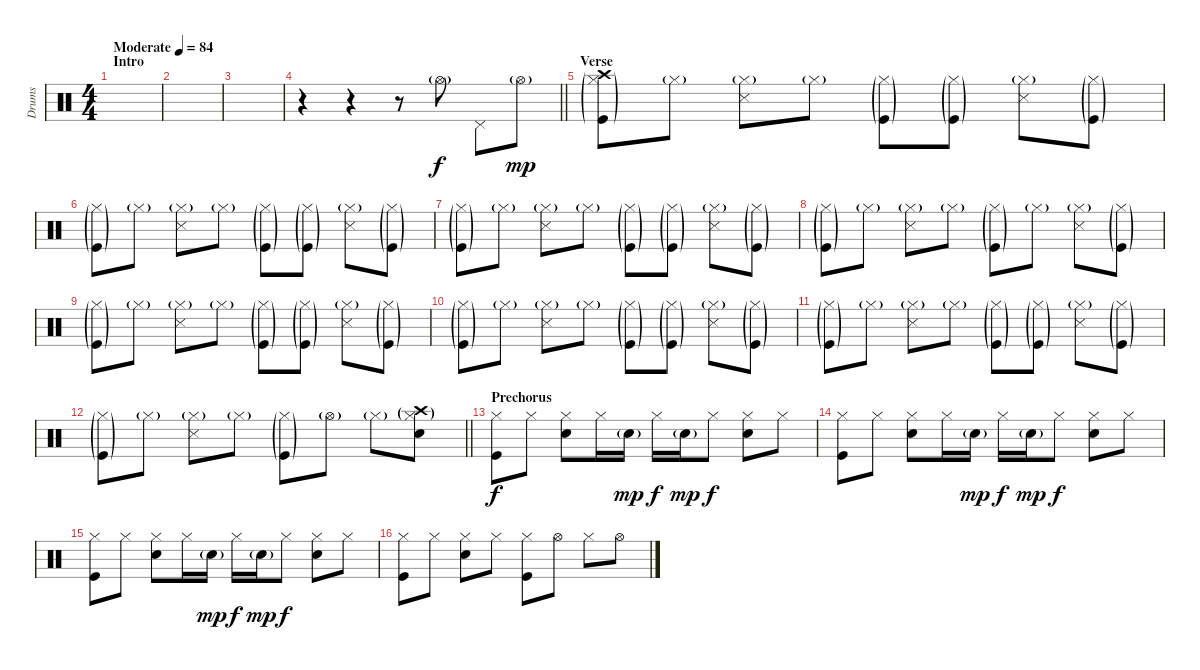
\track ("Drums" "Drums") {instrument percussion}
\staff {score}
\articulation defaults
\ts (4 4)
\section ("" "Intro")
\tempo (84 "Moderate")
\clef neutral
\ks c
|
|
|
\barLineRight lightlight
r.4 r.4 r.8 "Hi-Hat (open)"{g}.8 "Pedal Hi-Hat (hit)".8{dy f} "Hi-Hat (open)"{g}.8{dy mp} |
\section ("" "Verse")
("Hi-Hat (closed)"{g} "Crash high (hit)"{g} "Kick (hit)"{g}).8 "Hi-Hat (closed)"{g}.8 ("Hi-Hat (closed)"{g} "Snare (side stick) 3").8 "Hi-Hat (closed)"{g}.8 ("Hi-Hat (closed)"{g} "Kick (hit)"{g}).8 ("Hi-Hat (closed)"{g} "Kick (hit)"{g}).8 ("Hi-Hat (closed)"{g} "Snare (side stick) 3").8 ("Hi-Hat (closed)"{g} "Kick (hit)"{g}).8 |
("Hi-Hat (closed)"{g} "Kick (hit)"{g}).8 "Hi-Hat (closed)"{g}.8 ("Hi-Hat (closed)"{g} "Snare (side stick) 3").8 "Hi-Hat (closed)"{g}.8 ("Hi-Hat (closed)"{g} "Kick (hit)"{g}).8 ("Hi-Hat (closed)"{g} "Kick (hit)"{g}).8 ("Hi-Hat (closed)"{g} "Snare (side stick) 3").8 ("Hi-Hat (closed)"{g} "Kick (hit)"{g}).8 |
("Hi-Hat (closed)"{g} "Kick (hit)"{g}).8 "Hi-Hat (closed)"{g}.8 ("Hi-Hat (closed)"{g} "Snare (side stick) 3").8 "Hi-Hat (closed)"{g}.8 ("Hi-Hat (closed)"{g} "Kick (hit)"{g}).8 ("Hi-Hat (closed)"{g} "Kick (hit)"{g}).8 ("Hi-Hat (closed)"{g} "Snare (side stick) 3").8 ("Hi-Hat (closed)"{g} "Kick (hit)"{g}).8 |
("Hi-Hat (closed)"{g} "Kick (hit)"{g}).8 "Hi-Hat (closed)"{g}.8 ("Hi-Hat (closed)"{g} "Snare (side stick) 3").8 "Hi-Hat (closed)"{g}.8 ("Hi-Hat (closed)"{g} "Kick (hit)"{g}).8 "Hi-Hat (closed)"{g}.8 ("Hi-Hat (closed)"{g} "Snare (side stick) 3").8 ("Hi-Hat (closed)"{g} "Kick (hit)"{g}).8 |
("Hi-Hat (closed)"{g} "Kick (hit)"{g}).8 "Hi-Hat (closed)"{g}.8 ("Hi-Hat (closed)"{g} "Snare (side stick) 3").8 "Hi-Hat (closed)"{g}.8 ("Hi-Hat (closed)"{g} "Kick (hit)"{g}).8 ("Hi-Hat (closed)"{g} "Kick (hit)"{g}).8 ("Hi-Hat (closed)"{g} "Snare (side stick) 3").8 ("Hi-Hat (closed)"{g} "Kick (hit)"{g}).8 |
("Hi-Hat (closed)"{g} "Kick (hit)"{g}).8 "Hi-Hat (closed)"{g}.8 ("Hi-Hat (closed)"{g} "Snare (side stick) 3").8 "Hi-Hat (closed)"{g}.8 ("Hi-Hat (closed)"{g} "Kick (hit)"{g}).8 ("Hi-Hat (closed)"{g} "Kick (hit)"{g}).8 ("Hi-Hat (closed)"{g} "Snare (side stick) 3").8 ("Hi-Hat (closed)"{g} "Kick (hit)"{g}).8 |
("Hi-Hat (closed)"{g} "Kick (hit)"{g}).8 "Hi-Hat (closed)"{g}.8 ("Hi-Hat (closed)"{g} "Snare (side stick) 3").8 "Hi-Hat (closed)"{g}.8 ("Hi-Hat (closed)"{g} "Kick (hit)"{g}).8 ("Hi-Hat (closed)"{g} "Kick (hit)"{g}).8 ("Hi-Hat (closed)"{g} "Snare (side stick) 3").8 ("Hi-Hat (closed)"{g} "Kick (hit)"{g}).8 |
\barLineRight lightlight
("Hi-Hat (closed)"{g} "Kick (hit)"{g}).8 "Hi-Hat (closed)"{g}.8 ("Hi-Hat (closed)"{g} "Snare (side stick) 3").8 "Hi-Hat (closed)"{g}.8 ("Hi-Hat (closed)"{g} "Kick (hit)"{g}).8 "Hi-Hat (open)"{g}.8 "Hi-Hat (closed)"{g}.8 ("Hi-Hat (closed)"{g} "Crash high (hit)"{g} "Snare (hit) 2").8 |
\section ("" "Prechorus")
("Hi-Hat (closed)" "Kick (hit)").8{dy f} "Hi-Hat (closed)".8 ("Hi-Hat (closed)" "Snare (hit) 2").8 "Hi-Hat (closed)".16 "Snare (hit) 2"{g}.16{dy mp} "Hi-Hat (closed)".16{dy f} "Snare (hit) 2"{g}.16{dy mp} "Hi-Hat (closed)".8{dy f} ("Hi-Hat (closed)" "Snare (hit) 2").8 "Hi-Hat (closed)".8 |
("Hi-Hat (closed)" "Kick (hit)").8 "Hi-Hat (closed)".8 ("Hi-Hat (closed)" "Snare (hit) 2").8 "Hi-Hat (closed)".16 "Snare (hit) 2"{g}.16{dy mp} "Hi-Hat (closed)".16{dy f} "Snare (hit) 2"{g}.16{dy mp} "Hi-Hat (closed)".8{dy f} ("Hi-Hat (closed)" "Snare (hit) 2").8 "Hi-Hat (closed)".8 |
("Hi-Hat (closed)" "Kick (hit)").8 "Hi-Hat (closed)".8 ("Hi-Hat (closed)" "Snare (hit) 2").8 "Hi-Hat (closed)".16 "Snare (hit) 2"{g}.16{dy mp} "Hi-Hat (closed)".16{dy f} "Snare (hit) 2"{g}.16{dy mp} "Hi-Hat (closed)".8{dy f} ("Hi-Hat (closed)" "Snare (hit) 2").8 "Hi-Hat (closed)".8 |
("Hi-Hat (closed)" "Kick (hit)").8 "Hi-Hat (closed)".8 ("Hi-Hat (closed)" "Snare (hit) 2").8 "Hi-Hat (closed)".8 ("Hi-Hat (closed)" "Kick (hit)").8 "Hi-Hat (open)".8 "Hi-Hat (closed)".8 "Hi-Hat (open)".8
